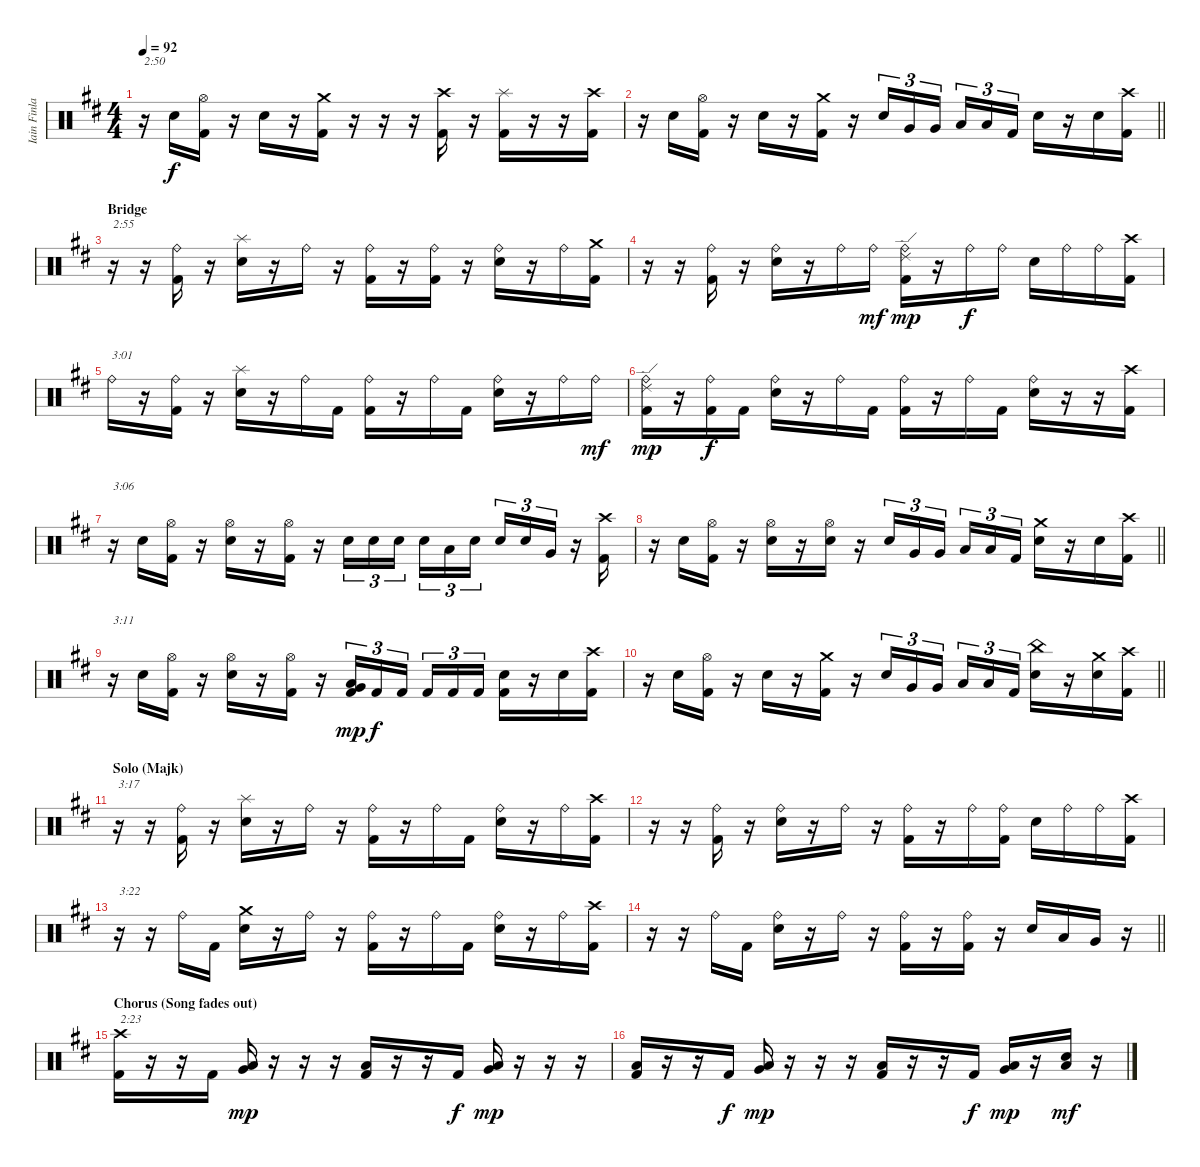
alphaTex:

\track ("Iain Finlay" "Iain Finla") {instrument percussion}
\staff {score}
\articulation defaults
\ts (4 4)
\tempo 92
\clef neutral
\ks bminor
r.16{txt "2:50" dy f} "Electric Snare (hit)".16 ("Hi-Hat (open)" "Kick (hit) 2").16 r.16 "Electric Snare (hit)".16 r.16 ("Crash medium (hit)" "Kick (hit) 2").16 r.16 r.16{volume 0} r.16 ("Crash high (hit)" "Kick (hit) 2").16{volume 13} r.16 ("Splash (hit)" "Kick (hit) 2").16 r.16 r.16 ("Crash high (hit)" "Kick (hit) 2").16 |
\barLineRight lightlight
r.16 "Electric Snare (hit)".16 ("Hi-Hat (open)" "Kick (hit) 2").16 r.16 "Electric Snare (hit)".16 r.16 ("Crash medium (hit)" "Kick (hit) 2").16 r.16 "Electric Snare (hit)".16{tu (3 2)} "Very Low Tom (hit)".16{tu (3 2)} "Very Low Tom (hit)".16{tu (3 2) beam splitsecondary} "Low Floor Tom (hit)".16{tu (3 2)} "Low Floor Tom (hit)".16{tu (3 2)} "Kick (hit) 2".16{tu (3 2)} "Electric Snare (hit)".16 r.16 "Electric Snare (hit)".16 ("Crash high (hit)" "Kick (hit) 2").16 |
\section ("" "Bridge")
r.16{txt "2:55"} r.16 ("Ride (bell)" "Kick (hit) 2").16 r.16 ("Splash (hit)" "Electric Snare (hit)").16 r.16 "Ride (bell)".16 r.16 ("Ride (bell)" "Kick (hit) 2").16 r.16 ("Ride (bell)" "Kick (hit) 2").16 r.16 ("Ride (bell)" "Electric Snare (hit)").16 r.16 "Ride (bell)".16 ("Crash medium (hit)" "Kick (hit) 2").16 |
r.16 r.16 ("Ride (bell)" "Kick (hit) 2").16 r.16 ("Ride (bell)" "Electric Snare (hit)").16 r.16 "Ride (bell)".16 "Ride (bell)".16{dy mf} ("Ride (edge) 2" "Ride (bell)" "Kick (hit) 2").16{dy mp} r.16 "Ride (bell)".16{dy f} "Ride (bell)".16 "Electric Snare (hit)".16 "Ride (bell)".16 "Ride (bell)".16 ("Crash high (hit)" "Kick (hit) 2").16 |
"Ride (bell)".16{txt "3:01"} r.16 ("Ride (bell)" "Kick (hit) 2").16 r.16 ("Splash (hit)" "Electric Snare (hit)").16 r.16 "Ride (bell)".16 "Kick (hit) 2".16 ("Ride (bell)" "Kick (hit) 2").16 r.16 "Ride (bell)".16 "Kick (hit) 2".16 ("Ride (bell)" "Electric Snare (hit)").16 r.16 "Ride (bell)".16 "Ride (bell)".16{dy mf} |
("Ride (edge) 2" "Ride (bell)" "Kick (hit) 2").16{dy mp} r.16 ("Ride (bell)" "Kick (hit) 2").16{dy f} "Kick (hit) 2".16 ("Ride (bell)" "Electric Snare (hit)").16 r.16 "Ride (bell)".16 "Kick (hit) 2".16 ("Ride (bell)" "Kick (hit) 2").16 r.16 "Ride (bell)".16 "Kick (hit) 2".16 ("Ride (bell)" "Electric Snare (hit)").16 r.16 r.16 ("Crash high (hit)" "Kick (hit) 2").16 |
r.16{txt "3:06"} "Electric Snare (hit)".16 ("Hi-Hat (open)" "Kick (hit) 2").16 r.16 ("Hi-Hat (open)" "Electric Snare (hit)").16 r.16 ("Hi-Hat (open)" "Kick (hit) 2").16 r.16 "Electric Snare (hit)".16{tu (3 2)} "Electric Snare (hit)".16{tu (3 2)} "Electric Snare (hit)".16{tu (3 2) beam splitsecondary} "Electric Snare (hit)".16{tu (3 2)} "Low Tom (hit)".16{tu (3 2)} "Electric Snare (hit)".16{tu (3 2)} "Electric Snare (hit)".16{tu (3 2)} "Electric Snare (hit)".16{tu (3 2)} "Very Low Tom (hit)".16{tu (3 2)} r.16 ("Crash high (hit)" "Kick (hit) 2").16 |
\barLineRight lightlight
r.16 "Electric Snare (hit)".16 ("Hi-Hat (open)" "Kick (hit) 2").16 r.16 ("Hi-Hat (open)" "Electric Snare (hit)").16 r.16 ("Hi-Hat (open)" "Electric Snare (hit)").16 r.16 "Electric Snare (hit)".16{tu (3 2)} "Very Low Tom (hit)".16{tu (3 2)} "Very Low Tom (hit)".16{tu (3 2) beam splitsecondary} "Low Floor Tom (hit)".16{tu (3 2)} "Low Floor Tom (hit)".16{tu (3 2)} "Kick (hit) 2".16{tu (3 2)} ("Crash medium (hit)" "Electric Snare (hit)").16 r.16 "Electric Snare (hit)".16 ("Crash high (hit)" "Kick (hit) 2").16 |
r.16{txt "3:11"} "Electric Snare (hit)".16 ("Hi-Hat (open)" "Kick (hit) 2").16 r.16 ("Hi-Hat (open)" "Electric Snare (hit)").16 r.16 ("Hi-Hat (open)" "Kick (hit) 2").16 r.16 ("Low Floor Tom (hit)" "Very Low Tom (hit)" "Kick (hit) 2").16{tu (3 2) dy mp} "Kick (hit) 2".16{tu (3 2) dy f} "Kick (hit) 2".16{tu (3 2) beam splitsecondary} "Kick (hit) 2".16{tu (3 2)} "Kick (hit) 2".16{tu (3 2)} "Kick (hit) 2".16{tu (3 2)} ("Electric Snare (hit)" "Kick (hit) 2").16 r.16 "Electric Snare (hit)".16 ("Crash high (hit)" "Kick (hit) 2").16 |
\barLineRight lightlight
r.16 "Electric Snare (hit)".16 ("Hi-Hat (open)" "Kick (hit) 2").16 r.16 "Electric Snare (hit)".16 r.16 ("Crash medium (hit)" "Kick (hit) 2").16 r.16 "Electric Snare (hit)".16{tu (3 2)} "Very Low Tom (hit)".16{tu (3 2)} "Very Low Tom (hit)".16{tu (3 2) beam splitsecondary} "Low Floor Tom (hit)".16{tu (3 2)} "Low Floor Tom (hit)".16{tu (3 2)} "Kick (hit) 2".16{tu (3 2)} ("China (hit)" "Electric Snare (hit)").16 r.16 ("Crash medium (hit)" "Electric Snare (hit)").16 ("Crash high (hit)" "Kick (hit) 2").16 |
\section ("" "Solo (Majk)")
r.16{txt "3:17"} r.16 ("Ride (bell)" "Kick (hit) 2").16 r.16 ("Splash (hit)" "Electric Snare (hit)").16 r.16 "Ride (bell)".16 r.16 ("Ride (bell)" "Kick (hit) 2").16 r.16 "Ride (bell)".16 "Kick (hit) 2".16 ("Ride (bell)" "Electric Snare (hit)").16 r.16 "Ride (bell)".16 ("Crash high (hit)" "Kick (hit) 2").16 |
r.16 r.16 ("Ride (bell)" "Kick (hit) 2").16 r.16 ("Ride (bell)" "Electric Snare (hit)").16 r.16 "Ride (bell)".16 r.16 ("Ride (bell)" "Kick (hit) 2").16 r.16 "Ride (bell)".16 ("Ride (bell)" "Kick (hit) 2").16 "Electric Snare (hit)".16 "Ride (bell)".16 "Ride (bell)".16 ("Crash high (hit)" "Kick (hit) 2").16 |
r.16{txt "3:22"} r.16 "Ride (bell)".16 "Kick (hit) 2".16 ("Crash medium (hit)" "Electric Snare (hit)").16 r.16 "Ride (bell)".16 r.16 ("Ride (bell)" "Kick (hit) 2").16 r.16 "Ride (bell)".16 "Kick (hit) 2".16 ("Ride (bell)" "Electric Snare (hit)").16 r.16 "Ride (bell)".16 ("Crash high (hit)" "Kick (hit) 2").16 |
\barLineRight lightlight
r.16 r.16 "Ride (bell)".16 "Kick (hit) 2".16 ("Ride (bell)" "Electric Snare (hit)").16 r.16 "Ride (bell)".16 r.16 ("Ride (bell)" "Kick (hit) 2").16 r.16 ("Ride (bell)" "Kick (hit) 2").16 r.16 "Electric Snare (hit)".16 "Low Tom (hit)".16 "Very Low Tom (hit)".16 r.16 |
\section ("" "Chorus (Song fades out)")
("Crash high (hit)" "Kick (hit) 2").16{txt "2:23"} r.16 r.16 "Kick (hit) 2".16 ("Low Floor Tom (hit)" "Very Low Tom (hit)").16{dy mp} r.16 r.16 r.16 ("Low Floor Tom (hit)" "Kick (hit) 2").16 r.16 r.16 "Kick (hit) 2".16{dy f} ("Low Floor Tom (hit)" "Very Low Tom (hit)").16{dy mp} r.16 r.16 r.16 |
("Low Floor Tom (hit)" "Kick (hit) 2").16 r.16 r.16 "Kick (hit) 2".16{dy f} ("Low Floor Tom (hit)" "Very Low Tom (hit)").16{dy mp} r.16 r.16 r.16 ("Low Floor Tom (hit)" "Kick (hit) 2").16 r.16 r.16 "Kick (hit) 2".16{dy f} ("Low Floor Tom (hit)" "Very Low Tom (hit)").16{dy mp} r.16 ("Low Floor Tom (hit)" "Electric Snare (hit)").16{dy mf} r.16
